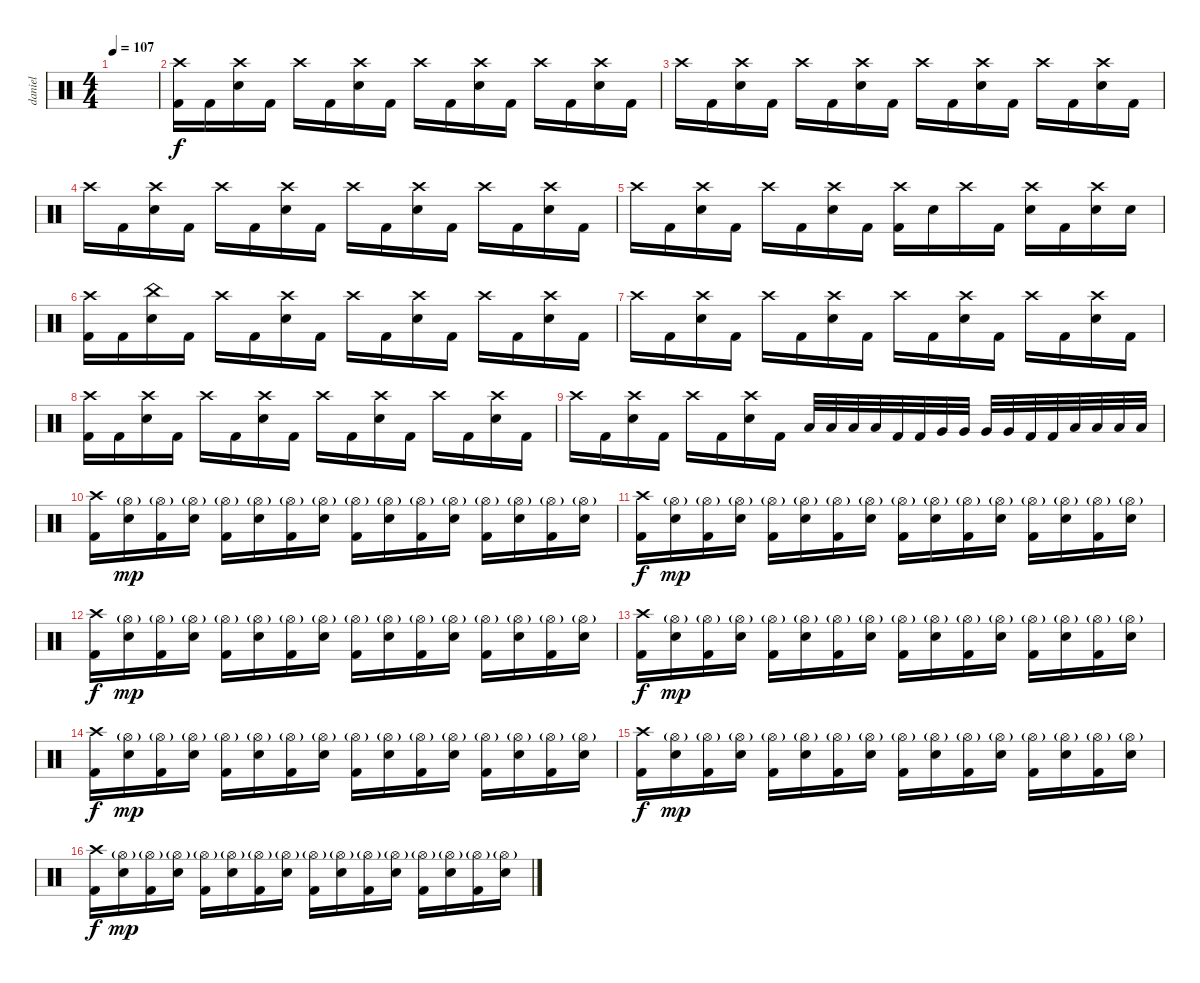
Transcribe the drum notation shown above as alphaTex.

\track ("daniel" "daniel") {instrument percussion}
\staff {score}
\articulation defaults
\ts (4 4)
\tempo 107
\clef neutral
\ks c
|
("Crash high (hit)" "Kick (hit) 2").16 "Kick (hit) 2".16 ("Crash high (hit)" "Electric Snare (hit)").16 "Kick (hit) 2".16 "Crash high (hit)".16 "Kick (hit) 2".16 ("Crash high (hit)" "Electric Snare (hit)").16 "Kick (hit) 2".16 "Crash high (hit)".16 "Kick (hit) 2".16 ("Crash high (hit)" "Electric Snare (hit)").16 "Kick (hit) 2".16 "Crash high (hit)".16 "Kick (hit) 2".16 ("Crash high (hit)" "Electric Snare (hit)").16 "Kick (hit) 2".16 |
"Crash high (hit)".16 "Kick (hit) 2".16 ("Crash high (hit)" "Electric Snare (hit)").16 "Kick (hit) 2".16 "Crash high (hit)".16 "Kick (hit) 2".16 ("Crash high (hit)" "Electric Snare (hit)").16 "Kick (hit) 2".16 "Crash high (hit)".16 "Kick (hit) 2".16 ("Crash high (hit)" "Electric Snare (hit)").16 "Kick (hit) 2".16 "Crash high (hit)".16 "Kick (hit) 2".16 ("Crash high (hit)" "Electric Snare (hit)").16 "Kick (hit) 2".16 |
"Crash high (hit)".16 "Kick (hit) 2".16 ("Crash high (hit)" "Electric Snare (hit)").16 "Kick (hit) 2".16 "Crash high (hit)".16 "Kick (hit) 2".16 ("Crash high (hit)" "Electric Snare (hit)").16 "Kick (hit) 2".16 "Crash high (hit)".16 "Kick (hit) 2".16 ("Crash high (hit)" "Electric Snare (hit)").16 "Kick (hit) 2".16 "Crash high (hit)".16 "Kick (hit) 2".16 ("Crash high (hit)" "Electric Snare (hit)").16 "Kick (hit) 2".16 |
"Crash high (hit)".16 "Kick (hit) 2".16 ("Crash high (hit)" "Electric Snare (hit)").16 "Kick (hit) 2".16 "Crash high (hit)".16 "Kick (hit) 2".16 ("Crash high (hit)" "Electric Snare (hit)").16 "Kick (hit) 2".16 ("Crash high (hit)" "Kick (hit) 2").16 "Electric Snare (hit)".16 "Crash high (hit)".16 "Kick (hit) 2".16 ("Crash high (hit)" "Electric Snare (hit)").16 "Kick (hit) 2".16 ("Crash high (hit)" "Electric Snare (hit)").16 "Electric Snare (hit)".16 |
("Crash high (hit)" "Kick (hit) 2").16 "Kick (hit) 2".16 ("China (hit)" "Electric Snare (hit)").16 "Kick (hit) 2".16 "Crash high (hit)".16 "Kick (hit) 2".16 ("Crash high (hit)" "Electric Snare (hit)").16 "Kick (hit) 2".16 "Crash high (hit)".16 "Kick (hit) 2".16 ("Crash high (hit)" "Electric Snare (hit)").16 "Kick (hit) 2".16 "Crash high (hit)".16 "Kick (hit) 2".16 ("Crash high (hit)" "Electric Snare (hit)").16 "Kick (hit) 2".16 |
"Crash high (hit)".16 "Kick (hit) 2".16 ("Crash high (hit)" "Electric Snare (hit)").16 "Kick (hit) 2".16 "Crash high (hit)".16 "Kick (hit) 2".16 ("Crash high (hit)" "Electric Snare (hit)").16 "Kick (hit) 2".16 "Crash high (hit)".16 "Kick (hit) 2".16 ("Crash high (hit)" "Electric Snare (hit)").16 "Kick (hit) 2".16 "Crash high (hit)".16 "Kick (hit) 2".16 ("Crash high (hit)" "Electric Snare (hit)").16 "Kick (hit) 2".16 |
("Crash high (hit)" "Kick (hit) 2").16 "Kick (hit) 2".16 ("Crash high (hit)" "Electric Snare (hit)").16 "Kick (hit) 2".16 "Crash high (hit)".16 "Kick (hit) 2".16 ("Crash high (hit)" "Electric Snare (hit)").16 "Kick (hit) 2".16 "Crash high (hit)".16 "Kick (hit) 2".16 ("Crash high (hit)" "Electric Snare (hit)").16 "Kick (hit) 2".16 "Crash high (hit)".16 "Kick (hit) 2".16 ("Crash high (hit)" "Electric Snare (hit)").16 "Kick (hit) 2".16 |
"Crash high (hit)".16 "Kick (hit) 2".16 ("Crash high (hit)" "Electric Snare (hit)").16 "Kick (hit) 2".16 "Crash high (hit)".16 "Kick (hit) 2".16 ("Crash high (hit)" "Electric Snare (hit)").16 "Kick (hit) 2".16 "Low Tom (hit)".32 "Low Tom (hit)".32 "Low Tom (hit)".32 "Low Tom (hit)".32 "Kick (hit) 2".32 "Kick (hit) 2".32 "Very Low Tom (hit)".32 "Very Low Tom (hit)".32 "Very Low Tom (hit)".32 "Very Low Tom (hit)".32 "Kick (hit) 2".32 "Kick (hit) 2".32 "Low Floor Tom (hit)".32 "Low Floor Tom (hit)".32 "Low Floor Tom (hit)".32 "Low Floor Tom (hit)".32 |
("Crash high (hit)" "Kick (hit) 2").16 ("Hi-Hat (open)"{g} "Electric Snare (hit)").16{dy mp} ("Hi-Hat (open)"{g} "Kick (hit) 2").16 ("Hi-Hat (open)"{g} "Electric Snare (hit)").16 ("Hi-Hat (open)"{g} "Kick (hit) 2").16 ("Hi-Hat (open)"{g} "Electric Snare (hit)").16 ("Hi-Hat (open)"{g} "Kick (hit) 2").16 ("Hi-Hat (open)"{g} "Electric Snare (hit)").16 ("Hi-Hat (open)"{g} "Kick (hit) 2").16 ("Hi-Hat (open)"{g} "Electric Snare (hit)").16 ("Hi-Hat (open)"{g} "Kick (hit) 2").16 ("Hi-Hat (open)"{g} "Electric Snare (hit)").16 ("Hi-Hat (open)"{g} "Kick (hit) 2").16 ("Hi-Hat (open)"{g} "Electric Snare (hit)").16 ("Hi-Hat (open)"{g} "Kick (hit) 2").16 ("Hi-Hat (open)"{g} "Electric Snare (hit)").16 |
("Crash high (hit)" "Kick (hit) 2").16{dy f} ("Hi-Hat (open)"{g} "Electric Snare (hit)").16{dy mp} ("Hi-Hat (open)"{g} "Kick (hit) 2").16 ("Hi-Hat (open)"{g} "Electric Snare (hit)").16 ("Hi-Hat (open)"{g} "Kick (hit) 2").16 ("Hi-Hat (open)"{g} "Electric Snare (hit)").16 ("Hi-Hat (open)"{g} "Kick (hit) 2").16 ("Hi-Hat (open)"{g} "Electric Snare (hit)").16 ("Hi-Hat (open)"{g} "Kick (hit) 2").16 ("Hi-Hat (open)"{g} "Electric Snare (hit)").16 ("Hi-Hat (open)"{g} "Kick (hit) 2").16 ("Hi-Hat (open)"{g} "Electric Snare (hit)").16 ("Hi-Hat (open)"{g} "Kick (hit) 2").16 ("Hi-Hat (open)"{g} "Electric Snare (hit)").16 ("Hi-Hat (open)"{g} "Kick (hit) 2").16 ("Hi-Hat (open)"{g} "Electric Snare (hit)").16 |
("Crash high (hit)" "Kick (hit) 2").16{dy f} ("Hi-Hat (open)"{g} "Electric Snare (hit)").16{dy mp} ("Hi-Hat (open)"{g} "Kick (hit) 2").16 ("Hi-Hat (open)"{g} "Electric Snare (hit)").16 ("Hi-Hat (open)"{g} "Kick (hit) 2").16 ("Hi-Hat (open)"{g} "Electric Snare (hit)").16 ("Hi-Hat (open)"{g} "Kick (hit) 2").16 ("Hi-Hat (open)"{g} "Electric Snare (hit)").16 ("Hi-Hat (open)"{g} "Kick (hit) 2").16 ("Hi-Hat (open)"{g} "Electric Snare (hit)").16 ("Hi-Hat (open)"{g} "Kick (hit) 2").16 ("Hi-Hat (open)"{g} "Electric Snare (hit)").16 ("Hi-Hat (open)"{g} "Kick (hit) 2").16 ("Hi-Hat (open)"{g} "Electric Snare (hit)").16 ("Hi-Hat (open)"{g} "Kick (hit) 2").16 ("Hi-Hat (open)"{g} "Electric Snare (hit)").16 |
("Crash high (hit)" "Kick (hit) 2").16{dy f} ("Hi-Hat (open)"{g} "Electric Snare (hit)").16{dy mp} ("Hi-Hat (open)"{g} "Kick (hit) 2").16 ("Hi-Hat (open)"{g} "Electric Snare (hit)").16 ("Hi-Hat (open)"{g} "Kick (hit) 2").16 ("Hi-Hat (open)"{g} "Electric Snare (hit)").16 ("Hi-Hat (open)"{g} "Kick (hit) 2").16 ("Hi-Hat (open)"{g} "Electric Snare (hit)").16 ("Hi-Hat (open)"{g} "Kick (hit) 2").16 ("Hi-Hat (open)"{g} "Electric Snare (hit)").16 ("Hi-Hat (open)"{g} "Kick (hit) 2").16 ("Hi-Hat (open)"{g} "Electric Snare (hit)").16 ("Hi-Hat (open)"{g} "Kick (hit) 2").16 ("Hi-Hat (open)"{g} "Electric Snare (hit)").16 ("Hi-Hat (open)"{g} "Kick (hit) 2").16 ("Hi-Hat (open)"{g} "Electric Snare (hit)").16 |
("Crash high (hit)" "Kick (hit) 2").16{dy f} ("Hi-Hat (open)"{g} "Electric Snare (hit)").16{dy mp} ("Hi-Hat (open)"{g} "Kick (hit) 2").16 ("Hi-Hat (open)"{g} "Electric Snare (hit)").16 ("Hi-Hat (open)"{g} "Kick (hit) 2").16 ("Hi-Hat (open)"{g} "Electric Snare (hit)").16 ("Hi-Hat (open)"{g} "Kick (hit) 2").16 ("Hi-Hat (open)"{g} "Electric Snare (hit)").16 ("Hi-Hat (open)"{g} "Kick (hit) 2").16 ("Hi-Hat (open)"{g} "Electric Snare (hit)").16 ("Hi-Hat (open)"{g} "Kick (hit) 2").16 ("Hi-Hat (open)"{g} "Electric Snare (hit)").16 ("Hi-Hat (open)"{g} "Kick (hit) 2").16 ("Hi-Hat (open)"{g} "Electric Snare (hit)").16 ("Hi-Hat (open)"{g} "Kick (hit) 2").16 ("Hi-Hat (open)"{g} "Electric Snare (hit)").16 |
("Crash high (hit)" "Kick (hit) 2").16{dy f} ("Hi-Hat (open)"{g} "Electric Snare (hit)").16{dy mp} ("Hi-Hat (open)"{g} "Kick (hit) 2").16 ("Hi-Hat (open)"{g} "Electric Snare (hit)").16 ("Hi-Hat (open)"{g} "Kick (hit) 2").16 ("Hi-Hat (open)"{g} "Electric Snare (hit)").16 ("Hi-Hat (open)"{g} "Kick (hit) 2").16 ("Hi-Hat (open)"{g} "Electric Snare (hit)").16 ("Hi-Hat (open)"{g} "Kick (hit) 2").16 ("Hi-Hat (open)"{g} "Electric Snare (hit)").16 ("Hi-Hat (open)"{g} "Kick (hit) 2").16 ("Hi-Hat (open)"{g} "Electric Snare (hit)").16 ("Hi-Hat (open)"{g} "Kick (hit) 2").16 ("Hi-Hat (open)"{g} "Electric Snare (hit)").16 ("Hi-Hat (open)"{g} "Kick (hit) 2").16 ("Hi-Hat (open)"{g} "Electric Snare (hit)").16 |
("Crash high (hit)" "Kick (hit) 2").16{dy f} ("Hi-Hat (open)"{g} "Electric Snare (hit)").16{dy mp} ("Hi-Hat (open)"{g} "Kick (hit) 2").16 ("Hi-Hat (open)"{g} "Electric Snare (hit)").16 ("Hi-Hat (open)"{g} "Kick (hit) 2").16 ("Hi-Hat (open)"{g} "Electric Snare (hit)").16 ("Hi-Hat (open)"{g} "Kick (hit) 2").16 ("Hi-Hat (open)"{g} "Electric Snare (hit)").16 ("Hi-Hat (open)"{g} "Kick (hit) 2").16 ("Hi-Hat (open)"{g} "Electric Snare (hit)").16 ("Hi-Hat (open)"{g} "Kick (hit) 2").16 ("Hi-Hat (open)"{g} "Electric Snare (hit)").16 ("Hi-Hat (open)"{g} "Kick (hit) 2").16 ("Hi-Hat (open)"{g} "Electric Snare (hit)").16 ("Hi-Hat (open)"{g} "Kick (hit) 2").16 ("Hi-Hat (open)"{g} "Electric Snare (hit)").16
